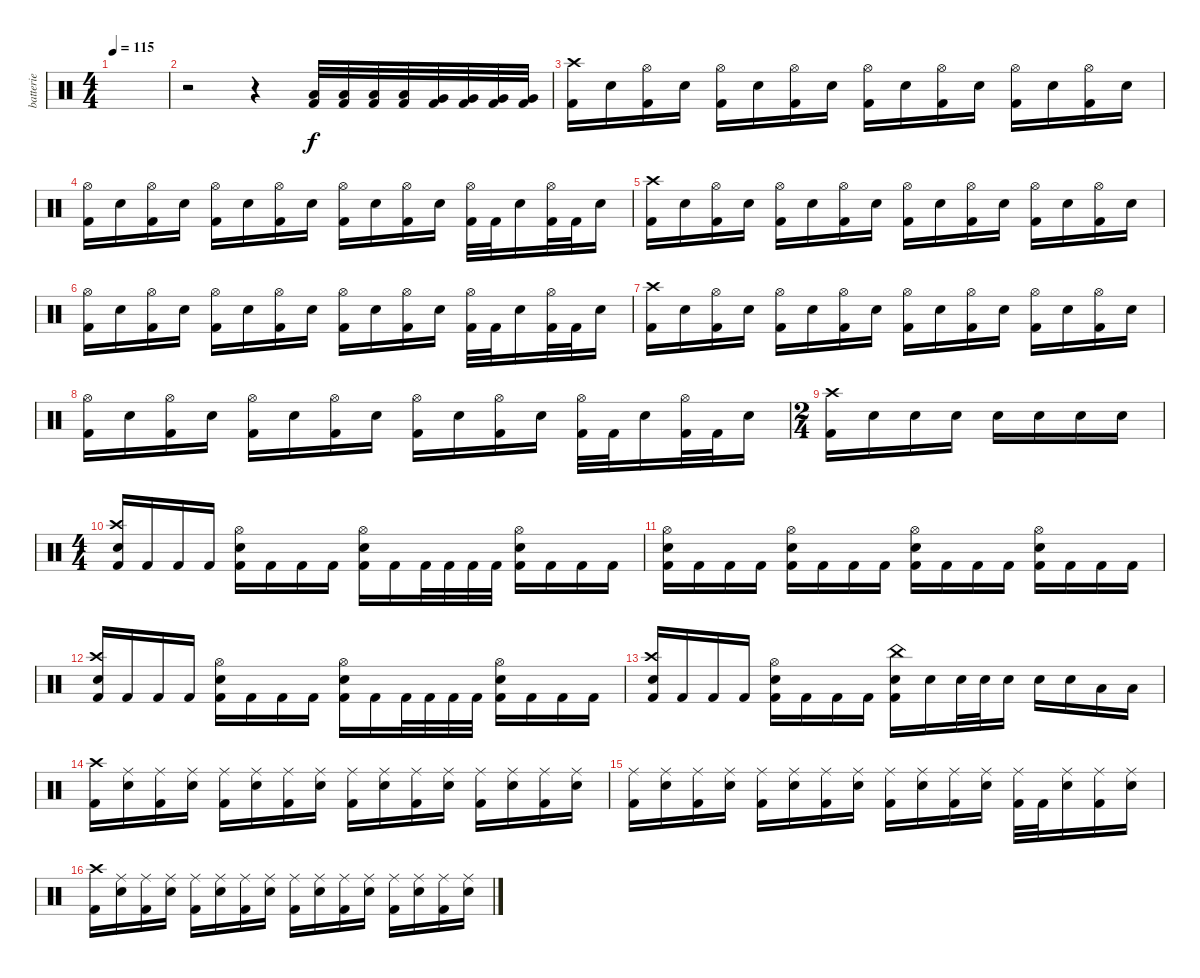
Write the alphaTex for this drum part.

\track ("batterie" "batterie") {instrument percussion}
\staff {score}
\articulation defaults
\ts (4 4)
\tempo 115
\clef neutral
\ks c
|
r.2 r.4 ("Low Tom (hit)" "Kick (hit) 2").32 ("Low Tom (hit)" "Kick (hit) 2").32 ("Low Tom (hit)" "Kick (hit) 2").32 ("Low Tom (hit)" "Kick (hit) 2").32 ("Very Low Tom (hit)" "Kick (hit) 2").32 ("Very Low Tom (hit)" "Kick (hit) 2").32 ("Very Low Tom (hit)" "Kick (hit) 2").32 ("Very Low Tom (hit)" "Kick (hit) 2").32 |
("Crash high (hit)" "Kick (hit) 2").16 "Electric Snare (hit)".16 ("Hi-Hat (open)" "Kick (hit) 2").16 "Electric Snare (hit)".16 ("Hi-Hat (open)" "Kick (hit) 2").16 "Electric Snare (hit)".16 ("Hi-Hat (open)" "Kick (hit) 2").16 "Electric Snare (hit)".16 ("Hi-Hat (open)" "Kick (hit) 2").16 "Electric Snare (hit)".16 ("Hi-Hat (open)" "Kick (hit) 2").16 "Electric Snare (hit)".16 ("Hi-Hat (open)" "Kick (hit) 2").16 "Electric Snare (hit)".16 ("Hi-Hat (open)" "Kick (hit) 2").16 "Electric Snare (hit)".16 |
("Hi-Hat (open)" "Kick (hit) 2").16 "Electric Snare (hit)".16 ("Hi-Hat (open)" "Kick (hit) 2").16 "Electric Snare (hit)".16 ("Hi-Hat (open)" "Kick (hit) 2").16 "Electric Snare (hit)".16 ("Hi-Hat (open)" "Kick (hit) 2").16 "Electric Snare (hit)".16 ("Hi-Hat (open)" "Kick (hit) 2").16 "Electric Snare (hit)".16 ("Hi-Hat (open)" "Kick (hit) 2").16 "Electric Snare (hit)".16 ("Hi-Hat (open)" "Kick (hit) 2").32 "Kick (hit) 2".32 "Electric Snare (hit)".16 ("Hi-Hat (open)" "Kick (hit) 2").32 "Kick (hit) 2".32 "Electric Snare (hit)".16 |
("Crash high (hit)" "Kick (hit) 2").16 "Electric Snare (hit)".16 ("Hi-Hat (open)" "Kick (hit) 2").16 "Electric Snare (hit)".16 ("Hi-Hat (open)" "Kick (hit) 2").16 "Electric Snare (hit)".16 ("Hi-Hat (open)" "Kick (hit) 2").16 "Electric Snare (hit)".16 ("Hi-Hat (open)" "Kick (hit) 2").16 "Electric Snare (hit)".16 ("Hi-Hat (open)" "Kick (hit) 2").16 "Electric Snare (hit)".16 ("Hi-Hat (open)" "Kick (hit) 2").16 "Electric Snare (hit)".16 ("Hi-Hat (open)" "Kick (hit) 2").16 "Electric Snare (hit)".16 |
("Hi-Hat (open)" "Kick (hit) 2").16 "Electric Snare (hit)".16 ("Hi-Hat (open)" "Kick (hit) 2").16 "Electric Snare (hit)".16 ("Hi-Hat (open)" "Kick (hit) 2").16 "Electric Snare (hit)".16 ("Hi-Hat (open)" "Kick (hit) 2").16 "Electric Snare (hit)".16 ("Hi-Hat (open)" "Kick (hit) 2").16 "Electric Snare (hit)".16 ("Hi-Hat (open)" "Kick (hit) 2").16 "Electric Snare (hit)".16 ("Hi-Hat (open)" "Kick (hit) 2").32 "Kick (hit) 2".32 "Electric Snare (hit)".16 ("Hi-Hat (open)" "Kick (hit) 2").32 "Kick (hit) 2".32 "Electric Snare (hit)".16 |
("Crash high (hit)" "Kick (hit) 2").16 "Electric Snare (hit)".16 ("Hi-Hat (open)" "Kick (hit) 2").16 "Electric Snare (hit)".16 ("Hi-Hat (open)" "Kick (hit) 2").16 "Electric Snare (hit)".16 ("Hi-Hat (open)" "Kick (hit) 2").16 "Electric Snare (hit)".16 ("Hi-Hat (open)" "Kick (hit) 2").16 "Electric Snare (hit)".16 ("Hi-Hat (open)" "Kick (hit) 2").16 "Electric Snare (hit)".16 ("Hi-Hat (open)" "Kick (hit) 2").16 "Electric Snare (hit)".16 ("Hi-Hat (open)" "Kick (hit) 2").16 "Electric Snare (hit)".16 |
("Hi-Hat (open)" "Kick (hit) 2").16 "Electric Snare (hit)".16 ("Hi-Hat (open)" "Kick (hit) 2").16 "Electric Snare (hit)".16 ("Hi-Hat (open)" "Kick (hit) 2").16 "Electric Snare (hit)".16 ("Hi-Hat (open)" "Kick (hit) 2").16 "Electric Snare (hit)".16 ("Hi-Hat (open)" "Kick (hit) 2").16 "Electric Snare (hit)".16 ("Hi-Hat (open)" "Kick (hit) 2").16 "Electric Snare (hit)".16 ("Hi-Hat (open)" "Kick (hit) 2").32 "Kick (hit) 2".32 "Electric Snare (hit)".16 ("Hi-Hat (open)" "Kick (hit) 2").32 "Kick (hit) 2".32 "Electric Snare (hit)".16 |
\ts (2 4)
("Crash high (hit)" "Kick (hit) 2").16 "Electric Snare (hit)".16 "Electric Snare (hit)".16 "Electric Snare (hit)".16 "Electric Snare (hit)".16 "Electric Snare (hit)".16 "Electric Snare (hit)".16 "Electric Snare (hit)".16 |
\ts (4 4)
("Crash high (hit)" "Electric Snare (hit)" "Kick (hit) 2").16 "Kick (hit) 2".16 "Kick (hit) 2".16 "Kick (hit) 2".16 ("Hi-Hat (open)" "Electric Snare (hit)" "Kick (hit) 2").16 "Kick (hit) 2".16 "Kick (hit) 2".16 "Kick (hit) 2".16 ("Hi-Hat (open)" "Electric Snare (hit)" "Kick (hit) 2").16 "Kick (hit) 2".16 "Kick (hit) 2".32 "Kick (hit) 2".32 "Kick (hit) 2".32 "Kick (hit) 2".32 ("Hi-Hat (open)" "Electric Snare (hit)" "Kick (hit) 2").16 "Kick (hit) 2".16 "Kick (hit) 2".16 "Kick (hit) 2".16 |
("Hi-Hat (open)" "Electric Snare (hit)" "Kick (hit) 2").16 "Kick (hit) 2".16 "Kick (hit) 2".16 "Kick (hit) 2".16 ("Hi-Hat (open)" "Electric Snare (hit)" "Kick (hit) 2").16 "Kick (hit) 2".16 "Kick (hit) 2".16 "Kick (hit) 2".16 ("Hi-Hat (open)" "Electric Snare (hit)" "Kick (hit) 2").16 "Kick (hit) 2".16 "Kick (hit) 2".16 "Kick (hit) 2".16 ("Hi-Hat (open)" "Electric Snare (hit)" "Kick (hit) 2").16 "Kick (hit) 2".16 "Kick (hit) 2".16 "Kick (hit) 2".16 |
("Crash high (hit)" "Electric Snare (hit)" "Kick (hit) 2").16 "Kick (hit) 2".16 "Kick (hit) 2".16 "Kick (hit) 2".16 ("Hi-Hat (open)" "Electric Snare (hit)" "Kick (hit) 2").16 "Kick (hit) 2".16 "Kick (hit) 2".16 "Kick (hit) 2".16 ("Hi-Hat (open)" "Electric Snare (hit)" "Kick (hit) 2").16 "Kick (hit) 2".16 "Kick (hit) 2".32 "Kick (hit) 2".32 "Kick (hit) 2".32 "Kick (hit) 2".32 ("Hi-Hat (open)" "Electric Snare (hit)" "Kick (hit) 2").16 "Kick (hit) 2".16 "Kick (hit) 2".16 "Kick (hit) 2".16 |
("Crash high (hit)" "Electric Snare (hit)" "Kick (hit) 2").16 "Kick (hit) 2".16 "Kick (hit) 2".16 "Kick (hit) 2".16 ("Hi-Hat (open)" "Electric Snare (hit)" "Kick (hit) 2").16 "Kick (hit) 2".16 "Kick (hit) 2".16 "Kick (hit) 2".16 ("China (hit)" "Electric Snare (hit)" "Kick (hit) 2").16 "Electric Snare (hit)".16 "Electric Snare (hit)".32 "Electric Snare (hit)".32 "Electric Snare (hit)".16 "Electric Snare (hit)".16 "Electric Snare (hit)".16 "Low Floor Tom (hit)".16 "Low Floor Tom (hit)".16 |
("Crash high (hit)" "Kick (hit) 2").16 ("Ride (middle)" "Electric Snare (hit)").16 ("Ride (middle)" "Kick (hit) 2").16 ("Ride (middle)" "Electric Snare (hit)").16 ("Ride (middle)" "Kick (hit) 2").16 ("Ride (middle)" "Electric Snare (hit)").16 ("Ride (middle)" "Kick (hit) 2").16 ("Ride (middle)" "Electric Snare (hit)").16 ("Ride (middle)" "Kick (hit) 2").16 ("Ride (middle)" "Electric Snare (hit)").16 ("Ride (middle)" "Kick (hit) 2").16 ("Ride (middle)" "Electric Snare (hit)").16 ("Ride (middle)" "Kick (hit) 2").16 ("Ride (middle)" "Electric Snare (hit)").16 ("Ride (middle)" "Kick (hit) 2").16 ("Ride (middle)" "Electric Snare (hit)").16 |
("Ride (middle)" "Kick (hit) 2").16 ("Ride (middle)" "Electric Snare (hit)").16 ("Ride (middle)" "Kick (hit) 2").16 ("Ride (middle)" "Electric Snare (hit)").16 ("Ride (middle)" "Kick (hit) 2").16 ("Ride (middle)" "Electric Snare (hit)").16 ("Ride (middle)" "Kick (hit) 2").16 ("Ride (middle)" "Electric Snare (hit)").16 ("Ride (middle)" "Kick (hit) 2").16 ("Ride (middle)" "Electric Snare (hit)").16 ("Ride (middle)" "Kick (hit) 2").16 ("Ride (middle)" "Electric Snare (hit)").16 ("Ride (middle)" "Kick (hit) 2").32 "Kick (hit) 2".32 ("Ride (middle)" "Electric Snare (hit)").16 ("Ride (middle)" "Kick (hit) 2").16 ("Ride (middle)" "Electric Snare (hit)").16 |
("Crash high (hit)" "Kick (hit) 2").16 ("Ride (middle)" "Electric Snare (hit)").16 ("Ride (middle)" "Kick (hit) 2").16 ("Ride (middle)" "Electric Snare (hit)").16 ("Ride (middle)" "Kick (hit) 2").16 ("Ride (middle)" "Electric Snare (hit)").16 ("Ride (middle)" "Kick (hit) 2").16 ("Ride (middle)" "Electric Snare (hit)").16 ("Ride (middle)" "Kick (hit) 2").16 ("Ride (middle)" "Electric Snare (hit)").16 ("Ride (middle)" "Kick (hit) 2").16 ("Ride (middle)" "Electric Snare (hit)").16 ("Ride (middle)" "Kick (hit) 2").16 ("Ride (middle)" "Electric Snare (hit)").16 ("Ride (middle)" "Kick (hit) 2").16 ("Ride (middle)" "Electric Snare (hit)").16
